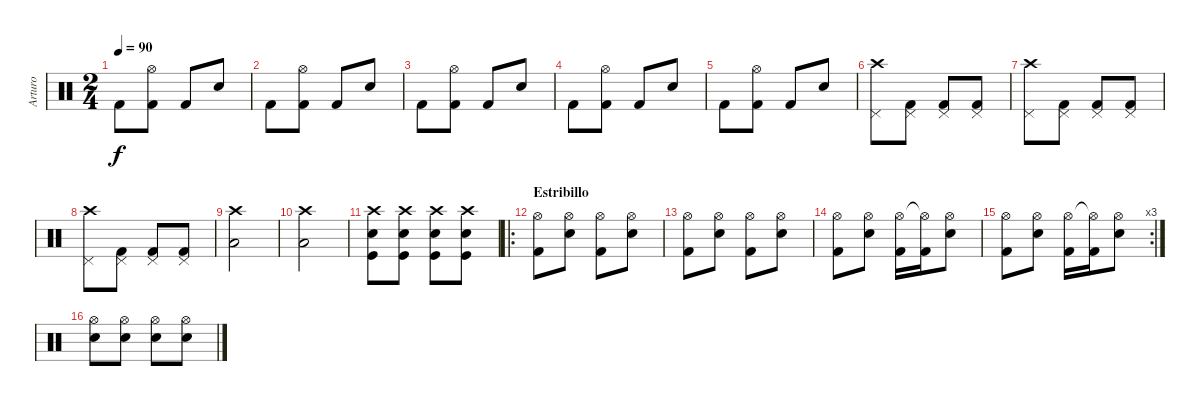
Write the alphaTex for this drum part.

\track ("Arturo" "Arturo") {instrument percussion}
\staff {score}
\articulation defaults
\ts (2 4)
\tempo 90
\clef neutral
\ks c "Kick (hit) 2".8{dy f}
("Hi-Hat (open)" "Kick (hit) 2").8 "Kick (hit) 2".8 "Snare (hit) 2".8 |
"Kick (hit) 2".8 ("Hi-Hat (open)" "Kick (hit) 2").8 "Kick (hit) 2".8 "Snare (hit) 2".8 |
"Kick (hit) 2".8 ("Hi-Hat (open)" "Kick (hit) 2").8 "Kick (hit) 2".8 "Snare (hit) 2".8 |
"Kick (hit) 2".8 ("Hi-Hat (open)" "Kick (hit) 2").8 "Kick (hit) 2".8 "Snare (hit) 2".8 |
"Kick (hit) 2".8 ("Hi-Hat (open)" "Kick (hit) 2").8 "Kick (hit) 2".8 "Snare (hit) 2".8 |
("Pedal Hi-Hat (hit)" "Crash high (hit)").8 ("Pedal Hi-Hat (hit)" "Kick (hit) 2").8 ("Pedal Hi-Hat (hit)" "Kick (hit) 2").8 ("Pedal Hi-Hat (hit)" "Kick (hit) 2").8 |
("Pedal Hi-Hat (hit)" "Crash high (hit)").8 ("Pedal Hi-Hat (hit)" "Kick (hit) 2").8 ("Pedal Hi-Hat (hit)" "Kick (hit) 2").8 ("Pedal Hi-Hat (hit)" "Kick (hit) 2").8 |
("Pedal Hi-Hat (hit)" "Crash high (hit)").8 ("Pedal Hi-Hat (hit)" "Kick (hit) 2").8 ("Pedal Hi-Hat (hit)" "Kick (hit) 2").8 ("Pedal Hi-Hat (hit)" "Kick (hit) 2").8 |
("Crash high (hit)" "Low Floor Tom (hit)").2 |
("Crash high (hit)" "Low Floor Tom (hit)").2 |
("Hand Clap (hit)" "Crash high (hit)" "Kick (hit)").8 ("Hand Clap (hit)" "Crash high (hit)" "Kick (hit)").8 ("Hand Clap (hit)" "Crash high (hit)" "Kick (hit)").8 ("Hand Clap (hit)" "Crash high (hit)" "Kick (hit)").8 |
\ro
\section ("" "Estribillo")
("Hi-Hat (open)" "Kick (hit) 2").8 ("Hi-Hat (open)" "Electric Snare (hit)").8 ("Hi-Hat (open)" "Kick (hit) 2").8 ("Hi-Hat (open)" "Electric Snare (hit)").8 |
("Hi-Hat (open)" "Kick (hit) 2").8 ("Hi-Hat (open)" "Electric Snare (hit)").8 ("Hi-Hat (open)" "Kick (hit) 2").8 ("Hi-Hat (open)" "Electric Snare (hit)").8 |
("Hi-Hat (open)" "Kick (hit) 2").8 ("Hi-Hat (open)" "Electric Snare (hit)").8 ("Hi-Hat (open)" "Kick (hit) 2").16 ("Hi-Hat (open)"{t} "Kick (hit) 2").16 ("Hi-Hat (open)" "Electric Snare (hit)").8 |
\rc 3
("Hi-Hat (open)" "Kick (hit) 2").8 ("Hi-Hat (open)" "Electric Snare (hit)").8 ("Hi-Hat (open)" "Kick (hit) 2").16 ("Hi-Hat (open)"{t} "Kick (hit) 2").16 ("Hi-Hat (open)" "Electric Snare (hit)").8 |
("Hi-Hat (open)" "Electric Snare (hit)").8 ("Hi-Hat (open)" "Electric Snare (hit)").8 ("Hi-Hat (open)" "Electric Snare (hit)").8 ("Hi-Hat (open)" "Electric Snare (hit)").8
